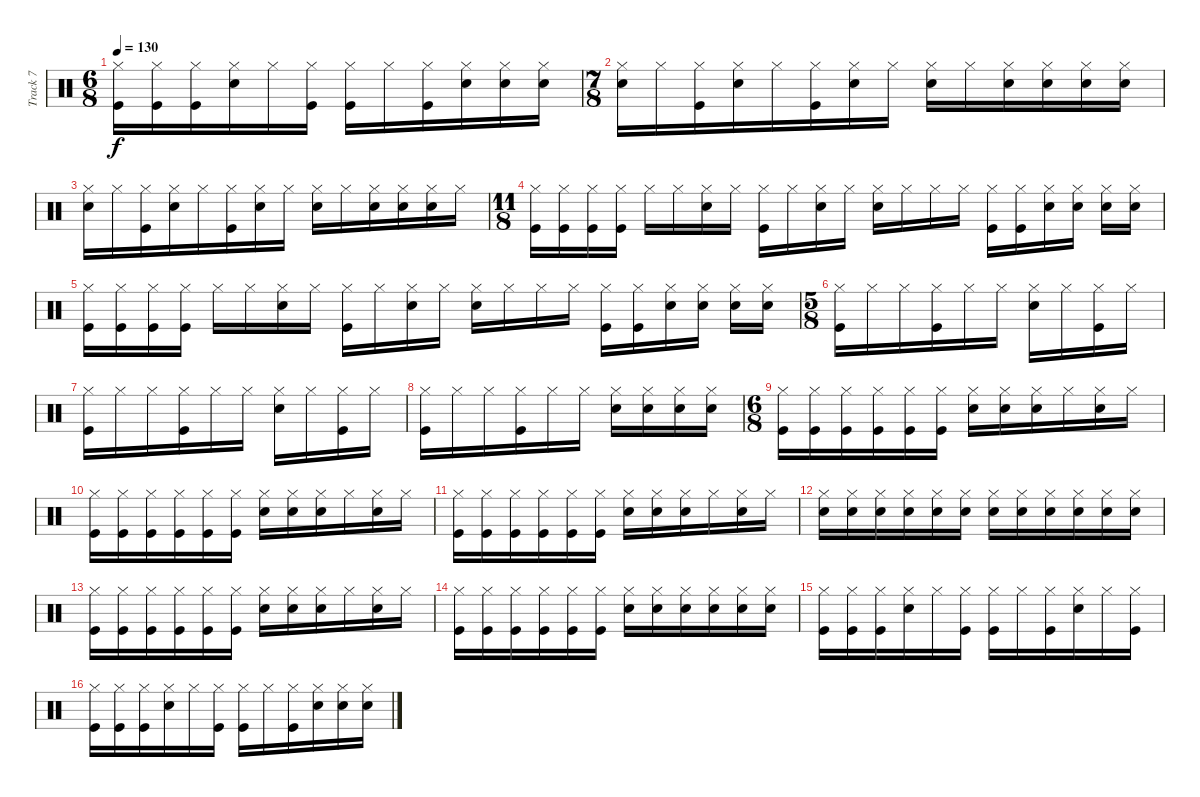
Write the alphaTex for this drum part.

\track ("Track 7" "Track 7") {instrument percussion}
\staff {score}
\articulation defaults
\ts (6 8)
\tempo 130
\clef neutral
\ks c
("Hi-Hat (closed)" "Kick (hit)").16{dy f} ("Kick (hit)" "Hi-Hat (closed)").16 ("Kick (hit)" "Hi-Hat (closed)").16 ("Snare (hit) 2" "Hi-Hat (closed)").16 "Hi-Hat (closed)".16 ("Kick (hit)" "Hi-Hat (closed)").16 ("Kick (hit)" "Hi-Hat (closed)").16 "Hi-Hat (closed)".16 ("Kick (hit)" "Hi-Hat (closed)").16 ("Hi-Hat (closed)" "Snare (hit) 2").16 ("Hi-Hat (closed)" "Snare (hit) 2").16 ("Hi-Hat (closed)" "Snare (hit) 2").16 |
\ts (7 8)
("Snare (hit) 2" "Hi-Hat (closed)").16 "Hi-Hat (closed)".16 ("Kick (hit)" "Hi-Hat (closed)").16 ("Snare (hit) 2" "Hi-Hat (closed)").16 "Hi-Hat (closed)".16 ("Kick (hit)" "Hi-Hat (closed)").16 ("Snare (hit) 2" "Hi-Hat (closed)").16 "Hi-Hat (closed)".16 ("Snare (hit) 2" "Hi-Hat (closed)").16 "Hi-Hat (closed)".16 ("Snare (hit) 2" "Hi-Hat (closed)").16 ("Snare (hit) 2" "Hi-Hat (closed)").16 ("Snare (hit) 2" "Hi-Hat (closed)").16 ("Snare (hit) 2" "Hi-Hat (closed)").16 |
("Snare (hit) 2" "Hi-Hat (closed)").16 "Hi-Hat (closed)".16 ("Kick (hit)" "Hi-Hat (closed)").16 ("Snare (hit) 2" "Hi-Hat (closed)").16 "Hi-Hat (closed)".16 ("Kick (hit)" "Hi-Hat (closed)").16 ("Snare (hit) 2" "Hi-Hat (closed)").16 "Hi-Hat (closed)".16 ("Snare (hit) 2" "Hi-Hat (closed)").16 "Hi-Hat (closed)".16 ("Snare (hit) 2" "Hi-Hat (closed)").16 ("Snare (hit) 2" "Hi-Hat (closed)").16 ("Snare (hit) 2" "Hi-Hat (closed)").16 "Hi-Hat (closed)".16 |
\ts (11 8)
("Kick (hit)" "Hi-Hat (closed)").16 ("Kick (hit)" "Hi-Hat (closed)").16 ("Kick (hit)" "Hi-Hat (closed)").16 ("Kick (hit)" "Hi-Hat (closed)").16 "Hi-Hat (closed)".16 "Hi-Hat (closed)".16 ("Snare (hit) 2" "Hi-Hat (closed)").16 "Hi-Hat (closed)".16 ("Kick (hit)" "Hi-Hat (closed)").16 "Hi-Hat (closed)".16 ("Snare (hit) 2" "Hi-Hat (closed)").16 "Hi-Hat (closed)".16 ("Snare (hit) 2" "Hi-Hat (closed)").16 "Hi-Hat (closed)".16 "Hi-Hat (closed)".16 "Hi-Hat (closed)".16 ("Kick (hit)" "Hi-Hat (closed)").16 ("Kick (hit)" "Hi-Hat (closed)").16 ("Snare (hit) 2" "Hi-Hat (closed)").16 ("Snare (hit) 2" "Hi-Hat (closed)").16 ("Snare (hit) 2" "Hi-Hat (closed)").16 ("Snare (hit) 2" "Hi-Hat (closed)").16 |
("Kick (hit)" "Hi-Hat (closed)").16 ("Kick (hit)" "Hi-Hat (closed)").16 ("Kick (hit)" "Hi-Hat (closed)").16 ("Kick (hit)" "Hi-Hat (closed)").16 "Hi-Hat (closed)".16 "Hi-Hat (closed)".16 ("Snare (hit) 2" "Hi-Hat (closed)").16 "Hi-Hat (closed)".16 ("Kick (hit)" "Hi-Hat (closed)").16 "Hi-Hat (closed)".16 ("Snare (hit) 2" "Hi-Hat (closed)").16 "Hi-Hat (closed)".16 ("Snare (hit) 2" "Hi-Hat (closed)").16 "Hi-Hat (closed)".16 "Hi-Hat (closed)".16 "Hi-Hat (closed)".16 ("Kick (hit)" "Hi-Hat (closed)").16 ("Kick (hit)" "Hi-Hat (closed)").16 ("Snare (hit) 2" "Hi-Hat (closed)").16 ("Snare (hit) 2" "Hi-Hat (closed)").16 ("Snare (hit) 2" "Hi-Hat (closed)").16 ("Snare (hit) 2" "Hi-Hat (closed)").16 |
\ts (5 8)
("Hi-Hat (closed)" "Kick (hit)").16 "Hi-Hat (closed)".16 "Hi-Hat (closed)".16 ("Kick (hit)" "Hi-Hat (closed)").16 "Hi-Hat (closed)".16 "Hi-Hat (closed)".16 ("Snare (hit) 2" "Hi-Hat (closed)").16 "Hi-Hat (closed)".16 ("Kick (hit)" "Hi-Hat (closed)").16 "Hi-Hat (closed)".16 |
("Hi-Hat (closed)" "Kick (hit)").16 "Hi-Hat (closed)".16 "Hi-Hat (closed)".16 ("Kick (hit)" "Hi-Hat (closed)").16 "Hi-Hat (closed)".16 "Hi-Hat (closed)".16 ("Snare (hit) 2" "Hi-Hat (closed)").16 "Hi-Hat (closed)".16 ("Kick (hit)" "Hi-Hat (closed)").16 "Hi-Hat (closed)".16 |
("Hi-Hat (closed)" "Kick (hit)").16 "Hi-Hat (closed)".16 "Hi-Hat (closed)".16 ("Kick (hit)" "Hi-Hat (closed)").16 "Hi-Hat (closed)".16 "Hi-Hat (closed)".16 ("Hi-Hat (closed)" "Snare (hit) 2").16 ("Hi-Hat (closed)" "Snare (hit) 2").16 ("Hi-Hat (closed)" "Snare (hit) 2").16 ("Hi-Hat (closed)" "Snare (hit) 2").16 |
\ts (6 8)
("Hi-Hat (closed)" "Kick (hit)").16 ("Kick (hit)" "Hi-Hat (closed)").16 ("Kick (hit)" "Hi-Hat (closed)").16 ("Kick (hit)" "Hi-Hat (closed)").16 ("Kick (hit)" "Hi-Hat (closed)").16 ("Kick (hit)" "Hi-Hat (closed)").16 ("Snare (hit) 2" "Hi-Hat (closed)").16 ("Snare (hit) 2" "Hi-Hat (closed)").16 ("Snare (hit) 2" "Hi-Hat (closed)").16 "Hi-Hat (closed)".16 ("Snare (hit) 2" "Hi-Hat (closed)").16 "Hi-Hat (closed)".16 |
("Hi-Hat (closed)" "Kick (hit)").16 ("Kick (hit)" "Hi-Hat (closed)").16 ("Kick (hit)" "Hi-Hat (closed)").16 ("Kick (hit)" "Hi-Hat (closed)").16 ("Kick (hit)" "Hi-Hat (closed)").16 ("Kick (hit)" "Hi-Hat (closed)").16 ("Snare (hit) 2" "Hi-Hat (closed)").16 ("Snare (hit) 2" "Hi-Hat (closed)").16 ("Snare (hit) 2" "Hi-Hat (closed)").16 "Hi-Hat (closed)".16 ("Snare (hit) 2" "Hi-Hat (closed)").16 "Hi-Hat (closed)".16 |
("Hi-Hat (closed)" "Kick (hit)").16 ("Kick (hit)" "Hi-Hat (closed)").16 ("Kick (hit)" "Hi-Hat (closed)").16 ("Kick (hit)" "Hi-Hat (closed)").16 ("Kick (hit)" "Hi-Hat (closed)").16 ("Kick (hit)" "Hi-Hat (closed)").16 ("Snare (hit) 2" "Hi-Hat (closed)").16 ("Snare (hit) 2" "Hi-Hat (closed)").16 ("Snare (hit) 2" "Hi-Hat (closed)").16 "Hi-Hat (closed)".16 ("Snare (hit) 2" "Hi-Hat (closed)").16 "Hi-Hat (closed)".16 |
("Hi-Hat (closed)" "Snare (hit) 2").16 ("Hi-Hat (closed)" "Snare (hit) 2").16 ("Hi-Hat (closed)" "Snare (hit) 2").16 ("Hi-Hat (closed)" "Snare (hit) 2").16 ("Hi-Hat (closed)" "Snare (hit) 2").16 ("Hi-Hat (closed)" "Snare (hit) 2").16 ("Hi-Hat (closed)" "Snare (hit) 2").16 ("Hi-Hat (closed)" "Snare (hit) 2").16 ("Hi-Hat (closed)" "Snare (hit) 2").16 ("Hi-Hat (closed)" "Snare (hit) 2").16 ("Hi-Hat (closed)" "Snare (hit) 2").16 ("Hi-Hat (closed)" "Snare (hit) 2").16 |
("Hi-Hat (closed)" "Kick (hit)").16 ("Kick (hit)" "Hi-Hat (closed)").16 ("Kick (hit)" "Hi-Hat (closed)").16 ("Kick (hit)" "Hi-Hat (closed)").16 ("Kick (hit)" "Hi-Hat (closed)").16 ("Kick (hit)" "Hi-Hat (closed)").16 ("Snare (hit) 2" "Hi-Hat (closed)").16 ("Snare (hit) 2" "Hi-Hat (closed)").16 ("Snare (hit) 2" "Hi-Hat (closed)").16 "Hi-Hat (closed)".16 ("Snare (hit) 2" "Hi-Hat (closed)").16 "Hi-Hat (closed)".16 |
("Hi-Hat (closed)" "Kick (hit)").16 ("Kick (hit)" "Hi-Hat (closed)").16 ("Kick (hit)" "Hi-Hat (closed)").16 ("Kick (hit)" "Hi-Hat (closed)").16 ("Kick (hit)" "Hi-Hat (closed)").16 ("Kick (hit)" "Hi-Hat (closed)").16 ("Hi-Hat (closed)" "Snare (hit) 2").16 ("Hi-Hat (closed)" "Snare (hit) 2").16 ("Hi-Hat (closed)" "Snare (hit) 2").16 ("Hi-Hat (closed)" "Snare (hit) 2").16 ("Hi-Hat (closed)" "Snare (hit) 2").16 ("Hi-Hat (closed)" "Snare (hit) 2").16 |
("Hi-Hat (closed)" "Kick (hit)").16 ("Kick (hit)" "Hi-Hat (closed)").16 ("Kick (hit)" "Hi-Hat (closed)").16 ("Snare (hit) 2" "Hi-Hat (closed)").16 "Hi-Hat (closed)".16 ("Kick (hit)" "Hi-Hat (closed)").16 ("Kick (hit)" "Hi-Hat (closed)").16 "Hi-Hat (closed)".16 ("Kick (hit)" "Hi-Hat (closed)").16 ("Snare (hit) 2" "Hi-Hat (closed)").16 "Hi-Hat (closed)".16 ("Kick (hit)" "Hi-Hat (closed)").16 |
("Hi-Hat (closed)" "Kick (hit)").16 ("Kick (hit)" "Hi-Hat (closed)").16 ("Kick (hit)" "Hi-Hat (closed)").16 ("Snare (hit) 2" "Hi-Hat (closed)").16 "Hi-Hat (closed)".16 ("Kick (hit)" "Hi-Hat (closed)").16 ("Kick (hit)" "Hi-Hat (closed)").16 "Hi-Hat (closed)".16 ("Kick (hit)" "Hi-Hat (closed)").16 ("Hi-Hat (closed)" "Snare (hit) 2").16 ("Hi-Hat (closed)" "Snare (hit) 2").16 ("Hi-Hat (closed)" "Snare (hit) 2").16
